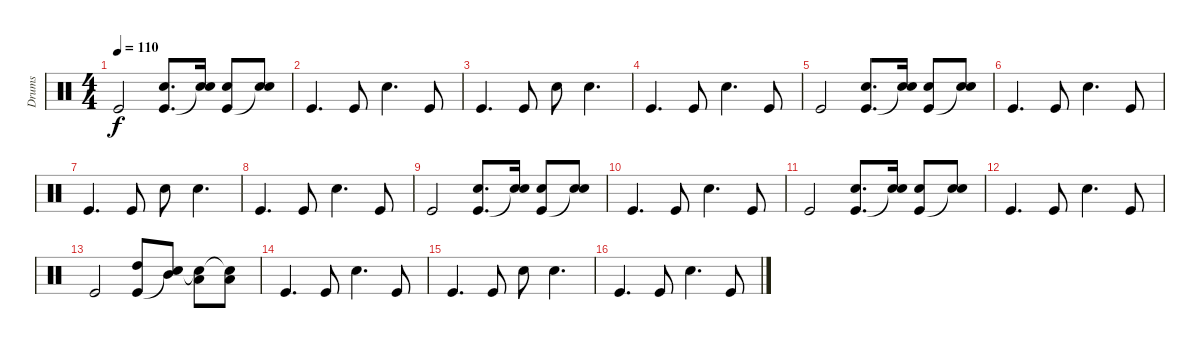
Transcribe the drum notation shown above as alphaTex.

\track ("Drums" "Drums") {instrument percussion}
\staff {score}
\articulation defaults
\ts (4 4)
\tempo 110
\clef neutral
\ks c "Kick (hit)".2{dy f}
("Kick (hit)" "Snare (hit) 2").8{d} ("Snare (hit)"{t} "Snare (hit) 2").16 ("Kick (hit)" "Snare (hit) 2").8 ("Snare (hit)"{t} "Snare (hit) 2").8 |
"Kick (hit)".4{d} "Kick (hit)".8 "Snare (hit) 2".4{d} "Kick (hit)".8 |
"Kick (hit)".4{d} "Kick (hit)".8 "Snare (hit) 2".8 "Snare (hit) 2".4{d} |
"Kick (hit)".4{d} "Kick (hit)".8 "Snare (hit) 2".4{d} "Kick (hit)".8 |
"Kick (hit)".2 ("Kick (hit)" "Snare (hit) 2").8{d} ("Snare (hit)"{t} "Snare (hit) 2").16 ("Kick (hit)" "Snare (hit) 2").8 ("Snare (hit)"{t} "Snare (hit) 2").8 |
"Kick (hit)".4{d} "Kick (hit)".8 "Snare (hit) 2".4{d} "Kick (hit)".8 |
"Kick (hit)".4{d} "Kick (hit)".8 "Snare (hit) 2".8 "Snare (hit) 2".4{d} |
"Kick (hit)".4{d} "Kick (hit)".8 "Snare (hit) 2".4{d} "Kick (hit)".8 |
"Kick (hit)".2 ("Kick (hit)" "Snare (hit) 2").8{d} ("Snare (hit)"{t} "Snare (hit) 2").16 ("Kick (hit)" "Snare (hit) 2").8 ("Snare (hit)"{t} "Snare (hit) 2").8 |
"Kick (hit)".4{d} "Kick (hit)".8 "Snare (hit) 2".4{d} "Kick (hit)".8 |
"Kick (hit)".2 ("Kick (hit)" "Snare (hit) 2").8{d} ("Snare (hit)"{t} "Snare (hit) 2").16 ("Kick (hit)" "Snare (hit) 2").8 ("Snare (hit)"{t} "Snare (hit) 2").8 |
"Kick (hit)".4{d} "Kick (hit)".8 "Snare (hit) 2".4{d} "Kick (hit)".8 |
"Kick (hit)".2 ("High Tom (hit)" "Kick (hit)").8 ("Mid Tom (hit)" "Snare (hit)"{t}).8 ("Low Tom (hit)" "Snare (hit) 2"{t}).8 ("Low Floor Tom (hit)" "Snare (hit) 2"{t}).8 |
"Kick (hit)".4{d} "Kick (hit)".8 "Snare (hit) 2".4{d} "Kick (hit)".8 |
"Kick (hit)".4{d} "Kick (hit)".8 "Snare (hit) 2".8 "Snare (hit) 2".4{d} |
"Kick (hit)".4{d} "Kick (hit)".8 "Snare (hit) 2".4{d} "Kick (hit)".8
